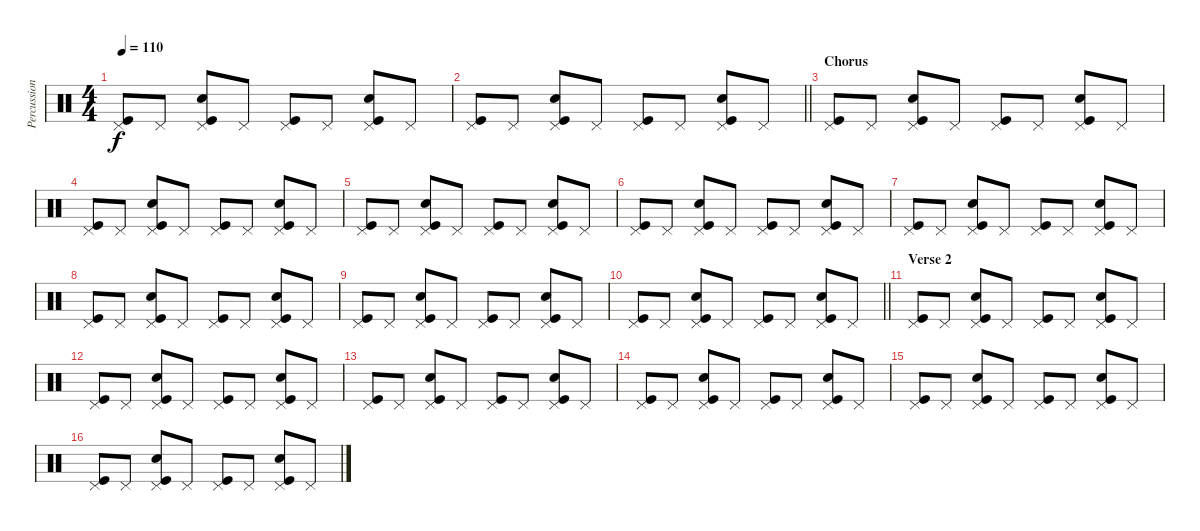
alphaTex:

\track ("Percussion" "Percussion") {instrument percussion}
\staff {score}
\articulation defaults
\ts (4 4)
\tempo 110
\clef neutral
\ks c
("Pedal Hi-Hat (hit)" "Kick (hit)").8{dy f} "Pedal Hi-Hat (hit)".8 ("Pedal Hi-Hat (hit)" "Snare (hit) 2" "Kick (hit)").8 "Pedal Hi-Hat (hit)".8 ("Pedal Hi-Hat (hit)" "Kick (hit)").8 "Pedal Hi-Hat (hit)".8 ("Pedal Hi-Hat (hit)" "Snare (hit) 2" "Kick (hit)").8 "Pedal Hi-Hat (hit)".8 |
\barLineRight lightlight
("Pedal Hi-Hat (hit)" "Kick (hit)").8 "Pedal Hi-Hat (hit)".8 ("Pedal Hi-Hat (hit)" "Snare (hit) 2" "Kick (hit)").8 "Pedal Hi-Hat (hit)".8 ("Pedal Hi-Hat (hit)" "Kick (hit)").8 "Pedal Hi-Hat (hit)".8 ("Pedal Hi-Hat (hit)" "Snare (hit) 2" "Kick (hit)").8 "Pedal Hi-Hat (hit)".8 |
\section ("" "Chorus")
("Pedal Hi-Hat (hit)" "Kick (hit)").8 "Pedal Hi-Hat (hit)".8 ("Pedal Hi-Hat (hit)" "Snare (hit) 2" "Kick (hit)").8 "Pedal Hi-Hat (hit)".8 ("Pedal Hi-Hat (hit)" "Kick (hit)").8 "Pedal Hi-Hat (hit)".8 ("Pedal Hi-Hat (hit)" "Snare (hit) 2" "Kick (hit)").8 "Pedal Hi-Hat (hit)".8 |
("Pedal Hi-Hat (hit)" "Kick (hit)").8 "Pedal Hi-Hat (hit)".8 ("Pedal Hi-Hat (hit)" "Snare (hit) 2" "Kick (hit)").8 "Pedal Hi-Hat (hit)".8 ("Pedal Hi-Hat (hit)" "Kick (hit)").8 "Pedal Hi-Hat (hit)".8 ("Pedal Hi-Hat (hit)" "Snare (hit) 2" "Kick (hit)").8 "Pedal Hi-Hat (hit)".8 |
("Pedal Hi-Hat (hit)" "Kick (hit)").8 "Pedal Hi-Hat (hit)".8 ("Pedal Hi-Hat (hit)" "Snare (hit) 2" "Kick (hit)").8 "Pedal Hi-Hat (hit)".8 ("Pedal Hi-Hat (hit)" "Kick (hit)").8 "Pedal Hi-Hat (hit)".8 ("Pedal Hi-Hat (hit)" "Snare (hit) 2" "Kick (hit)").8 "Pedal Hi-Hat (hit)".8 |
("Pedal Hi-Hat (hit)" "Kick (hit)").8 "Pedal Hi-Hat (hit)".8 ("Pedal Hi-Hat (hit)" "Snare (hit) 2" "Kick (hit)").8 "Pedal Hi-Hat (hit)".8 ("Pedal Hi-Hat (hit)" "Kick (hit)").8 "Pedal Hi-Hat (hit)".8 ("Pedal Hi-Hat (hit)" "Snare (hit) 2" "Kick (hit)").8 "Pedal Hi-Hat (hit)".8 |
("Pedal Hi-Hat (hit)" "Kick (hit)").8 "Pedal Hi-Hat (hit)".8 ("Pedal Hi-Hat (hit)" "Snare (hit) 2" "Kick (hit)").8 "Pedal Hi-Hat (hit)".8 ("Pedal Hi-Hat (hit)" "Kick (hit)").8 "Pedal Hi-Hat (hit)".8 ("Pedal Hi-Hat (hit)" "Snare (hit) 2" "Kick (hit)").8 "Pedal Hi-Hat (hit)".8 |
("Pedal Hi-Hat (hit)" "Kick (hit)").8 "Pedal Hi-Hat (hit)".8 ("Pedal Hi-Hat (hit)" "Snare (hit) 2" "Kick (hit)").8 "Pedal Hi-Hat (hit)".8 ("Pedal Hi-Hat (hit)" "Kick (hit)").8 "Pedal Hi-Hat (hit)".8 ("Pedal Hi-Hat (hit)" "Snare (hit) 2" "Kick (hit)").8 "Pedal Hi-Hat (hit)".8 |
("Pedal Hi-Hat (hit)" "Kick (hit)").8 "Pedal Hi-Hat (hit)".8 ("Pedal Hi-Hat (hit)" "Snare (hit) 2" "Kick (hit)").8 "Pedal Hi-Hat (hit)".8 ("Pedal Hi-Hat (hit)" "Kick (hit)").8 "Pedal Hi-Hat (hit)".8 ("Pedal Hi-Hat (hit)" "Snare (hit) 2" "Kick (hit)").8 "Pedal Hi-Hat (hit)".8 |
\barLineRight lightlight
("Pedal Hi-Hat (hit)" "Kick (hit)").8 "Pedal Hi-Hat (hit)".8 ("Pedal Hi-Hat (hit)" "Snare (hit) 2" "Kick (hit)").8 "Pedal Hi-Hat (hit)".8 ("Pedal Hi-Hat (hit)" "Kick (hit)").8 "Pedal Hi-Hat (hit)".8 ("Pedal Hi-Hat (hit)" "Snare (hit) 2" "Kick (hit)").8 "Pedal Hi-Hat (hit)".8 |
\section ("" "Verse 2")
("Pedal Hi-Hat (hit)" "Kick (hit)").8 "Pedal Hi-Hat (hit)".8 ("Pedal Hi-Hat (hit)" "Snare (hit) 2" "Kick (hit)").8 "Pedal Hi-Hat (hit)".8 ("Pedal Hi-Hat (hit)" "Kick (hit)").8 "Pedal Hi-Hat (hit)".8 ("Pedal Hi-Hat (hit)" "Snare (hit) 2" "Kick (hit)").8 "Pedal Hi-Hat (hit)".8 |
("Pedal Hi-Hat (hit)" "Kick (hit)").8 "Pedal Hi-Hat (hit)".8 ("Pedal Hi-Hat (hit)" "Snare (hit) 2" "Kick (hit)").8 "Pedal Hi-Hat (hit)".8 ("Pedal Hi-Hat (hit)" "Kick (hit)").8 "Pedal Hi-Hat (hit)".8 ("Pedal Hi-Hat (hit)" "Snare (hit) 2" "Kick (hit)").8 "Pedal Hi-Hat (hit)".8 |
("Pedal Hi-Hat (hit)" "Kick (hit)").8 "Pedal Hi-Hat (hit)".8 ("Pedal Hi-Hat (hit)" "Snare (hit) 2" "Kick (hit)").8 "Pedal Hi-Hat (hit)".8 ("Pedal Hi-Hat (hit)" "Kick (hit)").8 "Pedal Hi-Hat (hit)".8 ("Pedal Hi-Hat (hit)" "Snare (hit) 2" "Kick (hit)").8 "Pedal Hi-Hat (hit)".8 |
("Pedal Hi-Hat (hit)" "Kick (hit)").8 "Pedal Hi-Hat (hit)".8 ("Pedal Hi-Hat (hit)" "Snare (hit) 2" "Kick (hit)").8 "Pedal Hi-Hat (hit)".8 ("Pedal Hi-Hat (hit)" "Kick (hit)").8 "Pedal Hi-Hat (hit)".8 ("Pedal Hi-Hat (hit)" "Snare (hit) 2" "Kick (hit)").8 "Pedal Hi-Hat (hit)".8 |
("Pedal Hi-Hat (hit)" "Kick (hit)").8 "Pedal Hi-Hat (hit)".8 ("Pedal Hi-Hat (hit)" "Snare (hit) 2" "Kick (hit)").8 "Pedal Hi-Hat (hit)".8 ("Pedal Hi-Hat (hit)" "Kick (hit)").8 "Pedal Hi-Hat (hit)".8 ("Pedal Hi-Hat (hit)" "Snare (hit) 2" "Kick (hit)").8 "Pedal Hi-Hat (hit)".8 |
("Pedal Hi-Hat (hit)" "Kick (hit)").8 "Pedal Hi-Hat (hit)".8 ("Pedal Hi-Hat (hit)" "Snare (hit) 2" "Kick (hit)").8 "Pedal Hi-Hat (hit)".8 ("Pedal Hi-Hat (hit)" "Kick (hit)").8 "Pedal Hi-Hat (hit)".8 ("Pedal Hi-Hat (hit)" "Snare (hit) 2" "Kick (hit)").8 "Pedal Hi-Hat (hit)".8
